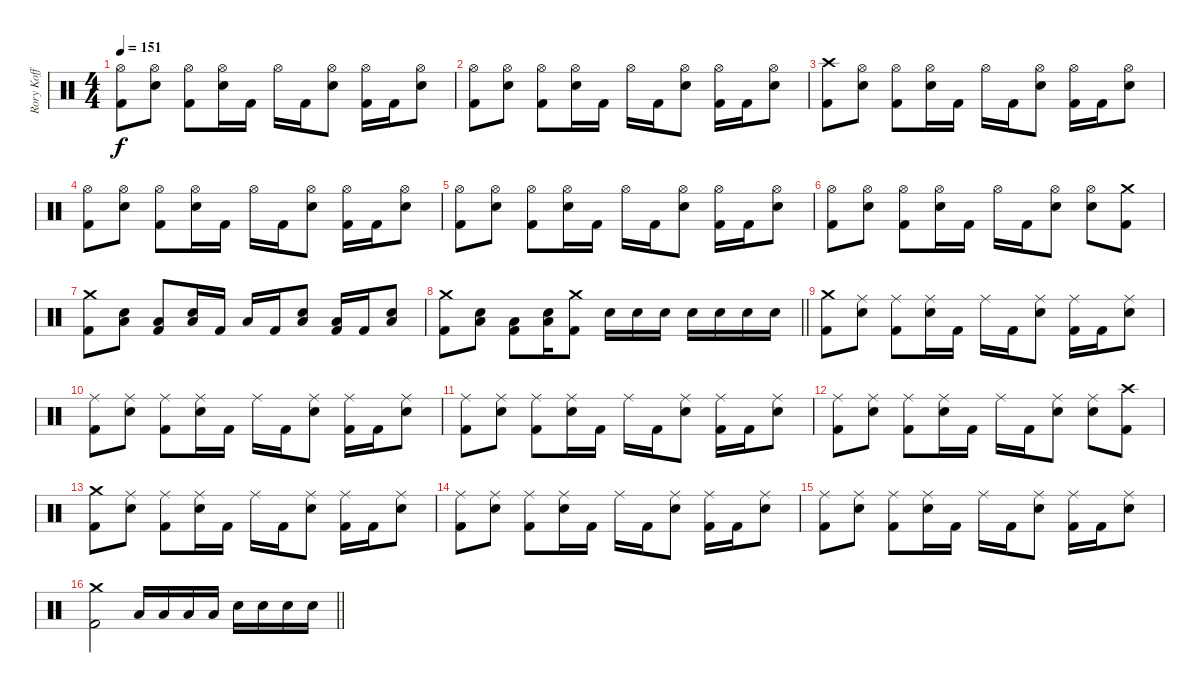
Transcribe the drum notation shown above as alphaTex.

\track ("Rory Koff" "Rory Koff") {instrument percussion}
\staff {score}
\articulation defaults
\ts (4 4)
\tempo 151
\clef neutral
\ks c
("Hi-Hat (open)" "Kick (hit) 2").8{dy f} ("Hi-Hat (open)" "Electric Snare (hit)").8 ("Hi-Hat (open)" "Kick (hit) 2").8 ("Hi-Hat (open)" "Electric Snare (hit)").16 "Kick (hit) 2".16 "Hi-Hat (open)".16 "Kick (hit) 2".16 ("Hi-Hat (open)" "Electric Snare (hit)").8 ("Hi-Hat (open)" "Kick (hit) 2").16 "Kick (hit) 2".16 ("Hi-Hat (open)" "Electric Snare (hit)").8 |
("Hi-Hat (open)" "Kick (hit) 2").8 ("Hi-Hat (open)" "Electric Snare (hit)").8 ("Hi-Hat (open)" "Kick (hit) 2").8 ("Hi-Hat (open)" "Electric Snare (hit)").16 "Kick (hit) 2".16 "Hi-Hat (open)".16 "Kick (hit) 2".16 ("Hi-Hat (open)" "Electric Snare (hit)").8 ("Hi-Hat (open)" "Kick (hit) 2").16 "Kick (hit) 2".16 ("Hi-Hat (open)" "Electric Snare (hit)").8 |
("Crash high (hit)" "Kick (hit) 2").8 ("Hi-Hat (open)" "Electric Snare (hit)").8 ("Hi-Hat (open)" "Kick (hit) 2").8 ("Hi-Hat (open)" "Electric Snare (hit)").16 "Kick (hit) 2".16 "Hi-Hat (open)".16 "Kick (hit) 2".16 ("Hi-Hat (open)" "Electric Snare (hit)").8 ("Hi-Hat (open)" "Kick (hit) 2").16 "Kick (hit) 2".16 ("Hi-Hat (open)" "Electric Snare (hit)").8 |
("Hi-Hat (open)" "Kick (hit) 2").8 ("Hi-Hat (open)" "Electric Snare (hit)").8 ("Hi-Hat (open)" "Kick (hit) 2").8 ("Hi-Hat (open)" "Electric Snare (hit)").16 "Kick (hit) 2".16 "Hi-Hat (open)".16 "Kick (hit) 2".16 ("Hi-Hat (open)" "Electric Snare (hit)").8 ("Hi-Hat (open)" "Kick (hit) 2").16 "Kick (hit) 2".16 ("Hi-Hat (open)" "Electric Snare (hit)").8 |
("Hi-Hat (open)" "Kick (hit) 2").8 ("Hi-Hat (open)" "Electric Snare (hit)").8 ("Hi-Hat (open)" "Kick (hit) 2").8 ("Hi-Hat (open)" "Electric Snare (hit)").16 "Kick (hit) 2".16 "Hi-Hat (open)".16 "Kick (hit) 2".16 ("Hi-Hat (open)" "Electric Snare (hit)").8 ("Hi-Hat (open)" "Kick (hit) 2").16 "Kick (hit) 2".16 ("Hi-Hat (open)" "Electric Snare (hit)").8 |
("Hi-Hat (open)" "Kick (hit) 2").8 ("Hi-Hat (open)" "Electric Snare (hit)").8 ("Hi-Hat (open)" "Kick (hit) 2").8 ("Hi-Hat (open)" "Electric Snare (hit)").16 "Kick (hit) 2".16 "Hi-Hat (open)".16 "Kick (hit) 2".16 ("Hi-Hat (open)" "Electric Snare (hit)").8 ("Hi-Hat (open)" "Electric Snare (hit)").8 ("Crash medium (hit)" "Kick (hit) 2").8 |
("Crash medium (hit)" "Kick (hit) 2").8 ("Electric Snare (hit)" "Low Floor Tom (hit)").8 ("Low Floor Tom (hit)" "Kick (hit) 2").8 ("Electric Snare (hit)" "Low Floor Tom (hit)").16 "Kick (hit) 2".16 "Low Floor Tom (hit)".16 "Kick (hit) 2".16 ("Electric Snare (hit)" "Low Floor Tom (hit)").8 ("Low Floor Tom (hit)" "Kick (hit) 2").16 "Kick (hit) 2".16 ("Electric Snare (hit)" "Low Floor Tom (hit)").8 |
\barLineRight lightlight
("Crash medium (hit)" "Kick (hit) 2").8 ("Electric Snare (hit)" "Low Floor Tom (hit)").8 ("Low Floor Tom (hit)" "Kick (hit) 2").8 ("Electric Snare (hit)" "Low Floor Tom (hit)").16 ("Crash medium (hit)" "Kick (hit) 2").8 "Electric Snare (hit)".16 "Electric Snare (hit)".16 "Electric Snare (hit)".16 "Electric Snare (hit)".16 "Electric Snare (hit)".16 "Electric Snare (hit)".16 "Electric Snare (hit)".16 |
\section ("" "")
("Crash medium (hit)" "Kick (hit) 2").8 ("Ride (middle)" "Electric Snare (hit)").8 ("Ride (middle)" "Kick (hit) 2").8 ("Ride (middle)" "Electric Snare (hit)").16 "Kick (hit) 2".16 "Ride (middle)".16 "Kick (hit) 2".16 ("Ride (middle)" "Electric Snare (hit)").8 ("Ride (middle)" "Kick (hit) 2").16 "Kick (hit) 2".16 ("Ride (middle)" "Electric Snare (hit)").8 |
("Ride (middle)" "Kick (hit) 2").8 ("Ride (middle)" "Electric Snare (hit)").8 ("Ride (middle)" "Kick (hit) 2").8 ("Ride (middle)" "Electric Snare (hit)").16 "Kick (hit) 2".16 "Ride (middle)".16 "Kick (hit) 2".16 ("Ride (middle)" "Electric Snare (hit)").8 ("Ride (middle)" "Kick (hit) 2").16 "Kick (hit) 2".16 ("Ride (middle)" "Electric Snare (hit)").8 |
("Ride (middle)" "Kick (hit) 2").8 ("Ride (middle)" "Electric Snare (hit)").8 ("Ride (middle)" "Kick (hit) 2").8 ("Ride (middle)" "Electric Snare (hit)").16 "Kick (hit) 2".16 "Ride (middle)".16 "Kick (hit) 2".16 ("Ride (middle)" "Electric Snare (hit)").8 ("Ride (middle)" "Kick (hit) 2").16 "Kick (hit) 2".16 ("Ride (middle)" "Electric Snare (hit)").8 |
("Ride (middle)" "Kick (hit) 2").8 ("Ride (middle)" "Electric Snare (hit)").8 ("Ride (middle)" "Kick (hit) 2").8 ("Ride (middle)" "Electric Snare (hit)").16 "Kick (hit) 2".16 "Ride (middle)".16 "Kick (hit) 2".16 ("Ride (middle)" "Electric Snare (hit)").8 ("Ride (middle)" "Electric Snare (hit)").8 ("Crash high (hit)" "Kick (hit) 2").8 |
("Crash medium (hit)" "Kick (hit) 2").8 ("Ride (middle)" "Electric Snare (hit)").8 ("Ride (middle)" "Kick (hit) 2").8 ("Ride (middle)" "Electric Snare (hit)").16 "Kick (hit) 2".16 "Ride (middle)".16 "Kick (hit) 2".16 ("Ride (middle)" "Electric Snare (hit)").8 ("Ride (middle)" "Kick (hit) 2").16 "Kick (hit) 2".16 ("Ride (middle)" "Electric Snare (hit)").8 |
("Ride (middle)" "Kick (hit) 2").8 ("Ride (middle)" "Electric Snare (hit)").8 ("Ride (middle)" "Kick (hit) 2").8 ("Ride (middle)" "Electric Snare (hit)").16 "Kick (hit) 2".16 "Ride (middle)".16 "Kick (hit) 2".16 ("Ride (middle)" "Electric Snare (hit)").8 ("Ride (middle)" "Kick (hit) 2").16 "Kick (hit) 2".16 ("Ride (middle)" "Electric Snare (hit)").8 |
("Ride (middle)" "Kick (hit) 2").8 ("Ride (middle)" "Electric Snare (hit)").8 ("Ride (middle)" "Kick (hit) 2").8 ("Ride (middle)" "Electric Snare (hit)").16 "Kick (hit) 2".16 "Ride (middle)".16 "Kick (hit) 2".16 ("Ride (middle)" "Electric Snare (hit)").8 ("Ride (middle)" "Kick (hit) 2").16 "Kick (hit) 2".16 ("Ride (middle)" "Electric Snare (hit)").8 |
\barLineRight lightlight
("Crash medium (hit)" "Kick (hit) 2").2 "Low Tom (hit)".16 "Low Tom (hit)".16 "Low Tom (hit)".16 "Low Tom (hit)".16 "Electric Snare (hit)".16 "Electric Snare (hit)".16 "Electric Snare (hit)".16 "Electric Snare (hit)".16
